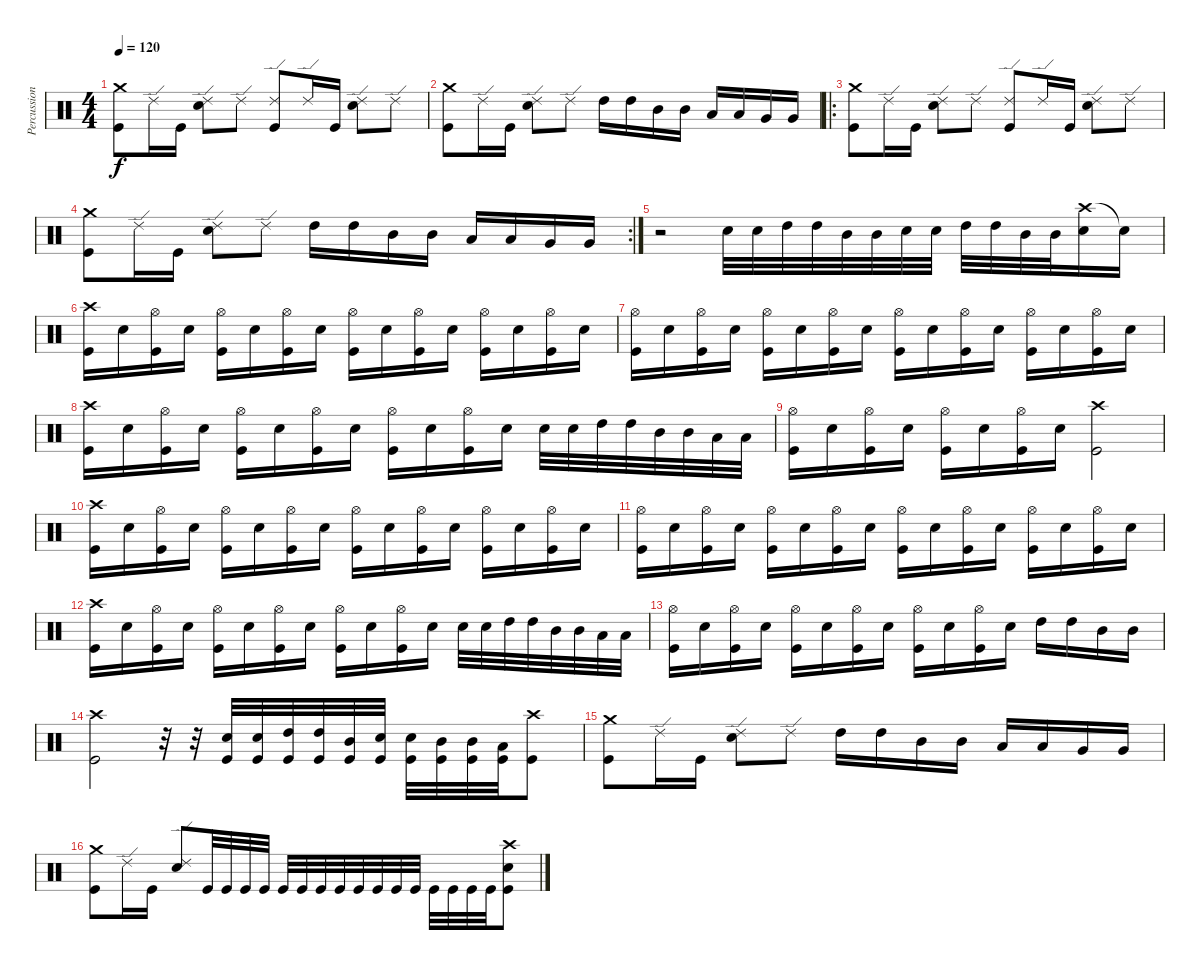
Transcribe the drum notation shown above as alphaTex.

\track ("Percussion" "Percussion") {instrument percussion}
\staff {score}
\articulation defaults
\ts (4 4)
\tempo 120
\clef neutral
\ks c
("Crash medium (hit)" "Kick (hit)").8{dy f} "Ride (edge) 2".16 "Kick (hit)".16 ("Ride (edge) 2" "Electric Snare (hit)").8 "Ride (edge) 2".8 ("Ride (edge) 2" "Kick (hit)").8 "Ride (edge) 2".16 "Kick (hit)".16 ("Ride (edge) 2" "Electric Snare (hit)").8 "Ride (edge) 2".8 |
("Crash medium (hit)" "Kick (hit)").8 "Ride (edge) 2".16 "Kick (hit)".16 ("Ride (edge) 2" "Electric Snare (hit)").8 "Ride (edge) 2".8 "High Tom (hit)".16 "High Tom (hit)".16 "Mid Tom (hit)".16 "Mid Tom (hit)".16 "Low Tom (hit)".16 "Low Tom (hit)".16 "Very Low Tom (hit)".16 "Very Low Tom (hit)".16 |
\ro
("Crash medium (hit)" "Kick (hit)").8 "Ride (edge) 2".16 "Kick (hit)".16 ("Ride (edge) 2" "Electric Snare (hit)").8 "Ride (edge) 2".8 ("Ride (edge) 2" "Kick (hit)").8 "Ride (edge) 2".16 "Kick (hit)".16 ("Ride (edge) 2" "Electric Snare (hit)").8 "Ride (edge) 2".8 |
\rc 2
("Crash medium (hit)" "Kick (hit)").8 "Ride (edge) 2".16 "Kick (hit)".16 ("Ride (edge) 2" "Electric Snare (hit)").8 "Ride (edge) 2".8 "High Tom (hit)".16 "High Tom (hit)".16 "Mid Tom (hit)".16 "Mid Tom (hit)".16 "Low Tom (hit)".16 "Low Tom (hit)".16 "Very Low Tom (hit)".16 "Very Low Tom (hit)".16 |
r.2 "Electric Snare (hit)".32 "Electric Snare (hit)".32 "High Tom (hit)".32 "High Tom (hit)".32 "Mid Tom (hit)".32 "Mid Tom (hit)".32 "Electric Snare (hit)".32 "Electric Snare (hit)".32 "High Tom (hit)".32 "High Tom (hit)".32 "Mid Tom (hit)".32 "Mid Tom (hit)".32 ("Crash high (hit)" "Electric Snare (hit)").16 "Electric Snare (hit)"{t}.16 |
("Crash high (hit)" "Kick (hit)").16 "Electric Snare (hit)".16 ("Hi-Hat (open)" "Kick (hit)").16 "Electric Snare (hit)".16 ("Hi-Hat (open)" "Kick (hit)").16 "Electric Snare (hit)".16 ("Hi-Hat (open)" "Kick (hit)").16 "Electric Snare (hit)".16 ("Hi-Hat (open)" "Kick (hit)").16 "Electric Snare (hit)".16 ("Hi-Hat (open)" "Kick (hit)").16 "Electric Snare (hit)".16 ("Hi-Hat (open)" "Kick (hit)").16 "Electric Snare (hit)".16 ("Hi-Hat (open)" "Kick (hit)").16 "Electric Snare (hit)".16 |
("Hi-Hat (open)" "Kick (hit)").16 "Electric Snare (hit)".16 ("Hi-Hat (open)" "Kick (hit)").16 "Electric Snare (hit)".16 ("Hi-Hat (open)" "Kick (hit)").16 "Electric Snare (hit)".16 ("Hi-Hat (open)" "Kick (hit)").16 "Electric Snare (hit)".16 ("Hi-Hat (open)" "Kick (hit)").16 "Electric Snare (hit)".16 ("Hi-Hat (open)" "Kick (hit)").16 "Electric Snare (hit)".16 ("Hi-Hat (open)" "Kick (hit)").16 "Electric Snare (hit)".16 ("Hi-Hat (open)" "Kick (hit)").16 "Electric Snare (hit)".16 |
("Crash high (hit)" "Kick (hit)").16 "Electric Snare (hit)".16 ("Hi-Hat (open)" "Kick (hit)").16 "Electric Snare (hit)".16 ("Hi-Hat (open)" "Kick (hit)").16 "Electric Snare (hit)".16 ("Hi-Hat (open)" "Kick (hit)").16 "Electric Snare (hit)".16 ("Hi-Hat (open)" "Kick (hit)").16 "Electric Snare (hit)".16 ("Hi-Hat (open)" "Kick (hit)").16 "Electric Snare (hit)".16 "Electric Snare (hit)".32 "Electric Snare (hit)".32 "High Tom (hit)".32 "High Tom (hit)".32 "Mid Tom (hit)".32 "Mid Tom (hit)".32 "Low Tom (hit)".32 "Low Tom (hit)".32 |
("Hi-Hat (open)" "Kick (hit)").16 "Electric Snare (hit)".16 ("Hi-Hat (open)" "Kick (hit)").16 "Electric Snare (hit)".16 ("Hi-Hat (open)" "Kick (hit)").16 "Electric Snare (hit)".16 ("Hi-Hat (open)" "Kick (hit)").16 "Electric Snare (hit)".16 ("Crash high (hit)" "Kick (hit)").2 |
("Crash high (hit)" "Kick (hit)").16 "Electric Snare (hit)".16 ("Hi-Hat (open)" "Kick (hit)").16 "Electric Snare (hit)".16 ("Hi-Hat (open)" "Kick (hit)").16 "Electric Snare (hit)".16 ("Hi-Hat (open)" "Kick (hit)").16 "Electric Snare (hit)".16 ("Hi-Hat (open)" "Kick (hit)").16 "Electric Snare (hit)".16 ("Hi-Hat (open)" "Kick (hit)").16 "Electric Snare (hit)".16 ("Hi-Hat (open)" "Kick (hit)").16 "Electric Snare (hit)".16 ("Hi-Hat (open)" "Kick (hit)").16 "Electric Snare (hit)".16 |
("Hi-Hat (open)" "Kick (hit)").16 "Electric Snare (hit)".16 ("Hi-Hat (open)" "Kick (hit)").16 "Electric Snare (hit)".16 ("Hi-Hat (open)" "Kick (hit)").16 "Electric Snare (hit)".16 ("Hi-Hat (open)" "Kick (hit)").16 "Electric Snare (hit)".16 ("Hi-Hat (open)" "Kick (hit)").16 "Electric Snare (hit)".16 ("Hi-Hat (open)" "Kick (hit)").16 "Electric Snare (hit)".16 ("Hi-Hat (open)" "Kick (hit)").16 "Electric Snare (hit)".16 ("Hi-Hat (open)" "Kick (hit)").16 "Electric Snare (hit)".16 |
("Crash high (hit)" "Kick (hit)").16 "Electric Snare (hit)".16 ("Hi-Hat (open)" "Kick (hit)").16 "Electric Snare (hit)".16 ("Hi-Hat (open)" "Kick (hit)").16 "Electric Snare (hit)".16 ("Hi-Hat (open)" "Kick (hit)").16 "Electric Snare (hit)".16 ("Hi-Hat (open)" "Kick (hit)").16 "Electric Snare (hit)".16 ("Hi-Hat (open)" "Kick (hit)").16 "Electric Snare (hit)".16 "Electric Snare (hit)".32 "Electric Snare (hit)".32 "High Tom (hit)".32 "High Tom (hit)".32 "Mid Tom (hit)".32 "Mid Tom (hit)".32 "Low Tom (hit)".32 "Low Tom (hit)".32 |
("Hi-Hat (open)" "Kick (hit)").16 "Electric Snare (hit)".16 ("Hi-Hat (open)" "Kick (hit)").16 "Electric Snare (hit)".16 ("Hi-Hat (open)" "Kick (hit)").16 "Electric Snare (hit)".16 ("Hi-Hat (open)" "Kick (hit)").16 "Electric Snare (hit)".16 ("Hi-Hat (open)" "Kick (hit)").16 "Electric Snare (hit)".16 ("Hi-Hat (open)" "Kick (hit)").16 "Electric Snare (hit)".16 "High Tom (hit)".16 "High Tom (hit)".16 "Mid Tom (hit)".16 "Mid Tom (hit)".16 |
("Crash high (hit)" "Kick (hit)").2 r.32 r.32 ("Electric Snare (hit)" "Kick (hit)").32 ("Electric Snare (hit)" "Kick (hit)").32 ("High Tom (hit)" "Kick (hit)").32 ("High Tom (hit)" "Kick (hit)").32 ("Mid Tom (hit)" "Kick (hit)").32 ("Electric Snare (hit)" "Kick (hit)").32 ("Electric Snare (hit)" "Kick (hit)").32 ("Mid Tom (hit)" "Kick (hit)").32 ("Mid Tom (hit)" "Kick (hit)").32 ("Low Tom (hit)" "Kick (hit)").32 ("Crash high (hit)" "Kick (hit)").8 |
("Crash medium (hit)" "Kick (hit)").8 "Ride (edge) 2".16 "Kick (hit)".16 ("Ride (edge) 2" "Electric Snare (hit)").8 "Ride (edge) 2".8 "High Tom (hit)".16 "High Tom (hit)".16 "Mid Tom (hit)".16 "Mid Tom (hit)".16 "Low Tom (hit)".16 "Low Tom (hit)".16 "Very Low Tom (hit)".16 "Very Low Tom (hit)".16 |
("Crash medium (hit)" "Kick (hit)").8 "Ride (edge) 2".16 "Kick (hit)".16 ("Ride (edge) 2" "Electric Snare (hit)").8 "Kick (hit)".32 "Kick (hit)".32 "Kick (hit)".32 "Kick (hit)".32 "Kick (hit)".32 "Kick (hit)".32 "Kick (hit)".32 "Kick (hit)".32 "Kick (hit)".32 "Kick (hit)".32 "Kick (hit)".32 "Kick (hit)".32 "Kick (hit)".32 "Kick (hit)".32 "Kick (hit)".32 "Kick (hit)".32 ("Crash high (hit)" "Electric Snare (hit)" "Kick (hit)").8
